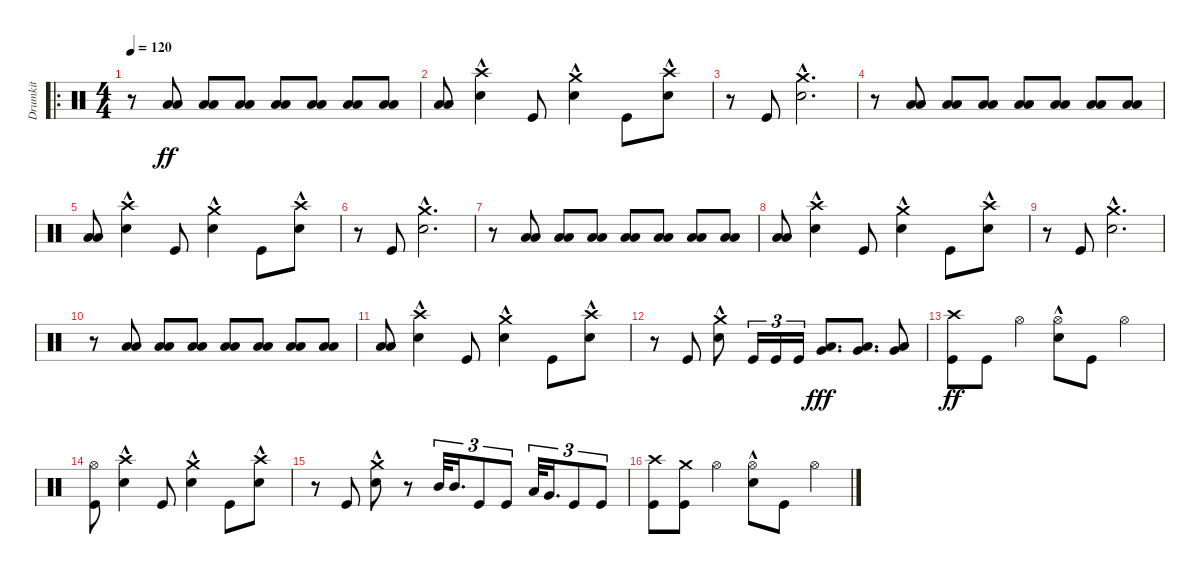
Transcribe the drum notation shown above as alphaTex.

\track ("Drumkit" "Drumkit") {instrument percussion}
\staff {score}
\articulation defaults
\ro
\ts (4 4)
\tempo 120
\clef neutral
\ks c
r.8{dy ff} ("Low Floor Tom (hit)" "Low Tom (hit)").8 ("Low Tom (hit)" "Low Floor Tom (hit)").8 ("Low Tom (hit)" "Low Floor Tom (hit)").8 ("Low Tom (hit)" "Low Floor Tom (hit)").8 ("Low Tom (hit)" "Low Floor Tom (hit)").8 ("Low Tom (hit)" "Low Floor Tom (hit)").8 ("Low Tom (hit)" "Low Floor Tom (hit)").8 |
("Low Floor Tom (hit)" "Low Tom (hit)").8 ("Snare (hit) 2"{hac} "Crash high (hit)").4 "Kick (hit)".8 ("Snare (hit) 2"{hac} "Crash medium (hit)").4 "Kick (hit)".8 ("Snare (hit) 2"{hac} "Crash high (hit)").8 |
r.8 "Kick (hit)".8 ("Snare (hit) 2"{hac} "Crash medium (hit)").2{d} |
r.8 ("Low Floor Tom (hit)" "Low Tom (hit)").8 ("Low Tom (hit)" "Low Floor Tom (hit)").8 ("Low Tom (hit)" "Low Floor Tom (hit)").8 ("Low Tom (hit)" "Low Floor Tom (hit)").8 ("Low Tom (hit)" "Low Floor Tom (hit)").8 ("Low Tom (hit)" "Low Floor Tom (hit)").8 ("Low Tom (hit)" "Low Floor Tom (hit)").8 |
("Low Floor Tom (hit)" "Low Tom (hit)").8 ("Snare (hit) 2"{hac} "Crash high (hit)").4 "Kick (hit)".8 ("Snare (hit) 2"{hac} "Crash medium (hit)").4 "Kick (hit)".8 ("Snare (hit) 2"{hac} "Crash high (hit)").8 |
r.8 "Kick (hit)".8 ("Snare (hit) 2"{hac} "Crash medium (hit)").2{d} |
r.8 ("Low Floor Tom (hit)" "Low Tom (hit)").8 ("Low Tom (hit)" "Low Floor Tom (hit)").8 ("Low Tom (hit)" "Low Floor Tom (hit)").8 ("Low Tom (hit)" "Low Floor Tom (hit)").8 ("Low Tom (hit)" "Low Floor Tom (hit)").8 ("Low Tom (hit)" "Low Floor Tom (hit)").8 ("Low Tom (hit)" "Low Floor Tom (hit)").8 |
("Low Floor Tom (hit)" "Low Tom (hit)").8 ("Snare (hit) 2"{hac} "Crash high (hit)").4 "Kick (hit)".8 ("Snare (hit) 2"{hac} "Crash medium (hit)").4 "Kick (hit)".8 ("Snare (hit) 2"{hac} "Crash high (hit)").8 |
r.8 "Kick (hit)".8 ("Snare (hit) 2"{hac} "Crash medium (hit)").2{d} |
r.8 ("Low Floor Tom (hit)" "Low Tom (hit)").8 ("Low Tom (hit)" "Low Floor Tom (hit)").8 ("Low Tom (hit)" "Low Floor Tom (hit)").8 ("Low Tom (hit)" "Low Floor Tom (hit)").8 ("Low Tom (hit)" "Low Floor Tom (hit)").8 ("Low Tom (hit)" "Low Floor Tom (hit)").8 ("Low Tom (hit)" "Low Floor Tom (hit)").8 |
("Low Floor Tom (hit)" "Low Tom (hit)").8 ("Snare (hit) 2"{hac} "Crash high (hit)").4 "Kick (hit)".8 ("Snare (hit) 2"{hac} "Crash medium (hit)").4 "Kick (hit)".8 ("Snare (hit) 2"{hac} "Crash high (hit)").8 |
r.8 "Kick (hit)".8 ("Snare (hit) 2"{hac} "Crash medium (hit)").8 "Kick (hit)".16{tu (3 2)} "Kick (hit)".16{tu (3 2)} "Kick (hit)".16{tu (3 2)} ("Very Low Tom (hit)" "Low Floor Tom (hit)").8{d dy fff} ("Very Low Tom (hit)" "Low Floor Tom (hit)").8{d} ("Very Low Tom (hit)" "Low Floor Tom (hit)").8 |
("Kick (hit)" "Crash high (hit)").8{dy ff} "Kick (hit)".8 "Hi-Hat (open)".4 ("Snare (hit) 2"{hac} "Hi-Hat (open)").8 "Kick (hit)".8 "Hi-Hat (open)".4 |
("Kick (hit)" "Hi-Hat (open)").8 ("Snare (hit) 2"{hac} "Crash high (hit)").4 "Kick (hit)".8 ("Snare (hit) 2"{hac} "Crash medium (hit)").4 "Kick (hit)".8 ("Snare (hit) 2"{hac} "Crash high (hit)").8 |
r.8 "Kick (hit)".8 ("Snare (hit) 2"{hac} "Crash medium (hit)").8 r.8 "Mid Tom (hit)".32{tu (3 2)} "Mid Tom (hit)".16{d tu (3 2)} "Kick (hit)".8{tu (3 2)} "Kick (hit)".8{tu (3 2)} "Low Tom (hit)".32{tu (3 2)} "Very Low Tom (hit)".16{d tu (3 2)} "Kick (hit)".8{tu (3 2)} "Kick (hit)".8{tu (3 2)} |
("Kick (hit)" "Crash high (hit)").8 ("Kick (hit)" "Crash medium (hit)").8 "Hi-Hat (open)".4 ("Snare (hit) 2"{hac} "Hi-Hat (open)").8 "Kick (hit)".8 "Hi-Hat (open)".4
